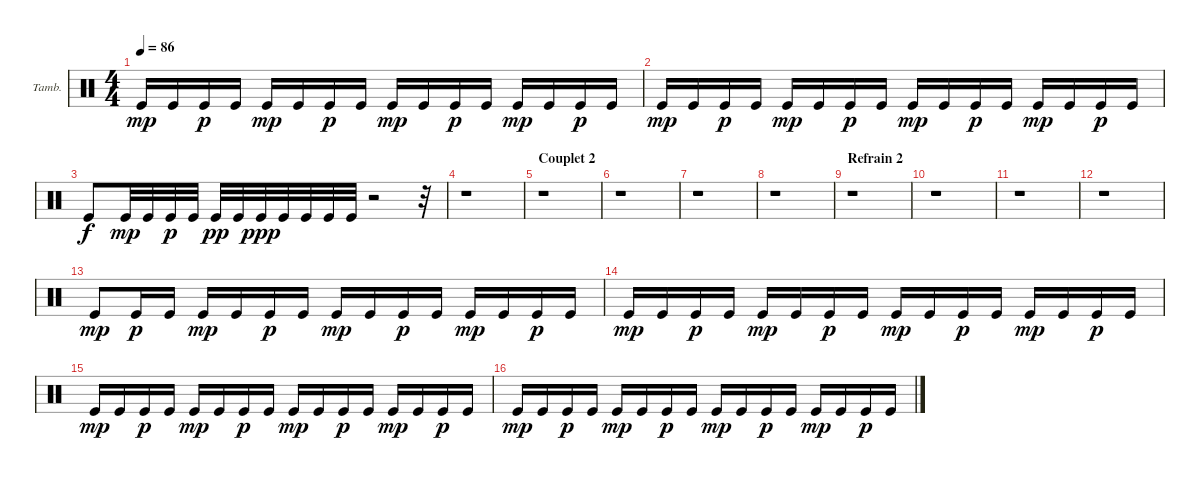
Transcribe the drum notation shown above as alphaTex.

\bracketExtendMode groupsimilarinstruments
\firstSystemTrackNameOrientation horizontal
\otherSystemsTrackNameOrientation horizontal
\track ("Tambourine" "Tamb.") {instrument percussion}
\staff {score}
\articulation defaults
\ts (4 4)
\tempo 86
\clef neutral
\ks c "Kick (hit)".16{dy mp} "Kick (hit)".16 "Kick (hit)".16{dy p} "Kick (hit)".16 "Kick (hit)".16{dy mp} "Kick (hit)".16 "Kick (hit)".16{dy p} "Kick (hit)".16 "Kick (hit)".16{dy mp} "Kick (hit)".16 "Kick (hit)".16{dy p} "Kick (hit)".16 "Kick (hit)".16{dy mp} "Kick (hit)".16 "Kick (hit)".16{dy p} "Kick (hit)".16
|
"Kick (hit)".16{dy mp} "Kick (hit)".16 "Kick (hit)".16{dy p} "Kick (hit)".16 "Kick (hit)".16{dy mp} "Kick (hit)".16 "Kick (hit)".16{dy p} "Kick (hit)".16 "Kick (hit)".16{dy mp} "Kick (hit)".16 "Kick (hit)".16{dy p} "Kick (hit)".16 "Kick (hit)".16{dy mp} "Kick (hit)".16 "Kick (hit)".16{dy p} "Kick (hit)".16 |
"Kick (hit)".8{dy f} "Kick (hit)".32{dy mp} "Kick (hit)".32 "Kick (hit)".32{dy p} "Kick (hit)".32 "Kick (hit)".32{dy pp} "Kick (hit)".32 "Kick (hit)".32{dy ppp} "Kick (hit)".32 "Kick (hit)".32 "Kick (hit)".32 "Kick (hit)".32 r.2 r.32 |
r.1 |
\section ("" "Couplet 2")
r.1 |
r.1 |
r.1 |
r.1 |
\section ("" "Refrain 2")
r.1 |
r.1 |
r.1 |
r.1 |
"Kick (hit)".8{dy mp} "Kick (hit)".16{dy p} "Kick (hit)".16 "Kick (hit)".16{dy mp} "Kick (hit)".16 "Kick (hit)".16{dy p} "Kick (hit)".16 "Kick (hit)".16{dy mp} "Kick (hit)".16 "Kick (hit)".16{dy p} "Kick (hit)".16 "Kick (hit)".16{dy mp} "Kick (hit)".16 "Kick (hit)".16{dy p} "Kick (hit)".16 |
"Kick (hit)".16{dy mp} "Kick (hit)".16 "Kick (hit)".16{dy p} "Kick (hit)".16 "Kick (hit)".16{dy mp} "Kick (hit)".16 "Kick (hit)".16{dy p} "Kick (hit)".16 "Kick (hit)".16{dy mp} "Kick (hit)".16 "Kick (hit)".16{dy p} "Kick (hit)".16 "Kick (hit)".16{dy mp} "Kick (hit)".16 "Kick (hit)".16{dy p} "Kick (hit)".16 |
"Kick (hit)".16{dy mp} "Kick (hit)".16 "Kick (hit)".16{dy p} "Kick (hit)".16 "Kick (hit)".16{dy mp} "Kick (hit)".16 "Kick (hit)".16{dy p} "Kick (hit)".16 "Kick (hit)".16{dy mp} "Kick (hit)".16 "Kick (hit)".16{dy p} "Kick (hit)".16 "Kick (hit)".16{dy mp} "Kick (hit)".16 "Kick (hit)".16{dy p} "Kick (hit)".16 |
"Kick (hit)".16{dy mp} "Kick (hit)".16 "Kick (hit)".16{dy p} "Kick (hit)".16 "Kick (hit)".16{dy mp} "Kick (hit)".16 "Kick (hit)".16{dy p} "Kick (hit)".16 "Kick (hit)".16{dy mp} "Kick (hit)".16 "Kick (hit)".16{dy p} "Kick (hit)".16 "Kick (hit)".16{dy mp} "Kick (hit)".16 "Kick (hit)".16{dy p} "Kick (hit)".16
